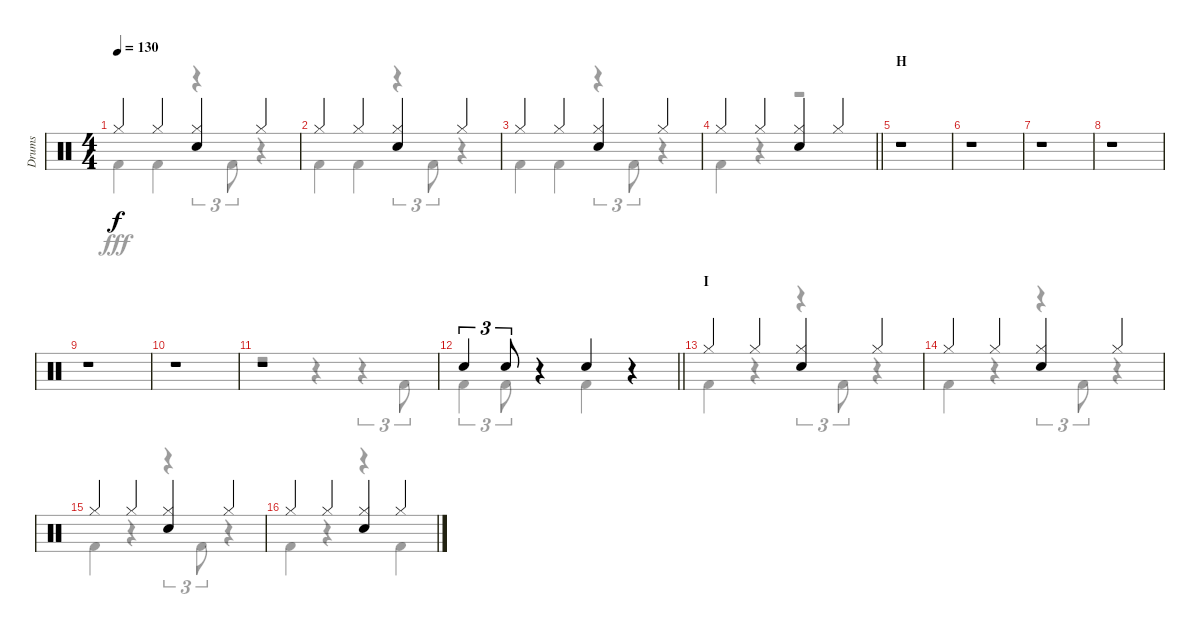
\track ("Drums" "Drums") {instrument percussion}
\staff {score}
\articulation defaults
\voice
\ts (4 4)
\tempo 130
\clef neutral
\ks c "Hi-Hat (closed)".4{dy f} "Hi-Hat (closed)".4
("Hi-Hat (closed)" "Snare (hit) 2").4 "Hi-Hat (closed)".4 |
"Hi-Hat (closed)".4 "Hi-Hat (closed)".4 ("Hi-Hat (closed)" "Snare (hit) 2").4 "Hi-Hat (closed)".4 |
"Hi-Hat (closed)".4 "Hi-Hat (closed)".4 ("Hi-Hat (closed)" "Snare (hit) 2").4 "Hi-Hat (closed)".4 |
\barLineRight lightlight "Hi-Hat (closed)".4 "Hi-Hat (closed)".4
("Hi-Hat (closed)" "Snare (hit) 2").4 "Hi-Hat (closed)".4 |
\section ("" "H")
r.1 |
r.1 |
r.1 |
r.1 |
r.1 |
r.1 |
r.1 |
\barLineRight lightlight "Snare (hit) 2".4{tu (3 2)} "Snare (hit) 2".8{tu (3 2)}
r.4 "Snare (hit) 2".4 r.4 |
\section ("" "I")
"Hi-Hat (closed)".4 "Hi-Hat (closed)".4 ("Hi-Hat (closed)" "Snare (hit) 2").4 "Hi-Hat (closed)".4 |
"Hi-Hat (closed)".4 "Hi-Hat (closed)".4 ("Hi-Hat (closed)" "Snare (hit) 2").4 "Hi-Hat (closed)".4 |
"Hi-Hat (closed)".4 "Hi-Hat (closed)".4 ("Hi-Hat (closed)" "Snare (hit) 2").4 "Hi-Hat (closed)".4 |
"Hi-Hat (closed)".4 "Hi-Hat (closed)".4 ("Hi-Hat (closed)" "Snare (hit) 2").4 "Hi-Hat (closed)".4
\voice
\clef neutral
\ottava regular
\simile none
\ks c "Kick (hit) 2".4{dy fff} "Kick (hit) 2".4
r.4{tu (3 2)} "Kick (hit) 2".8{tu (3 2)} r.4 |
"Kick (hit) 2".4 "Kick (hit) 2".4 r.4{tu (3 2)} "Kick (hit) 2".8{tu (3 2)} r.4 |
"Kick (hit) 2".4 "Kick (hit) 2".4 r.4{tu (3 2)} "Kick (hit) 2".8{tu (3 2)} r.4 |
\barLineRight lightlight "Kick (hit) 2".4
r.4 r.2 |
r.1 |
r.1 |
r.1 |
r.1 |
r.1 |
r.1 |
r.2 r.4 r.4{tu (3 2)} "Kick (hit) 2".8{tu (3 2)} |
\barLineRight lightlight "Kick (hit) 2".4{tu (3 2)} "Kick (hit) 2".8{tu (3 2)}
r.4 "Kick (hit) 2".4 r.4 |
"Kick (hit) 2".4 r.4 r.4{tu (3 2)} "Kick (hit) 2".8{tu (3 2)} r.4 |
"Kick (hit) 2".4 r.4 r.4{tu (3 2)} "Kick (hit) 2".8{tu (3 2)} r.4 |
"Kick (hit) 2".4 r.4 r.4{tu (3 2)} "Kick (hit) 2".8{tu (3 2)} r.4 |
"Kick (hit) 2".4 r.4 r.4 "Kick (hit) 2".4
